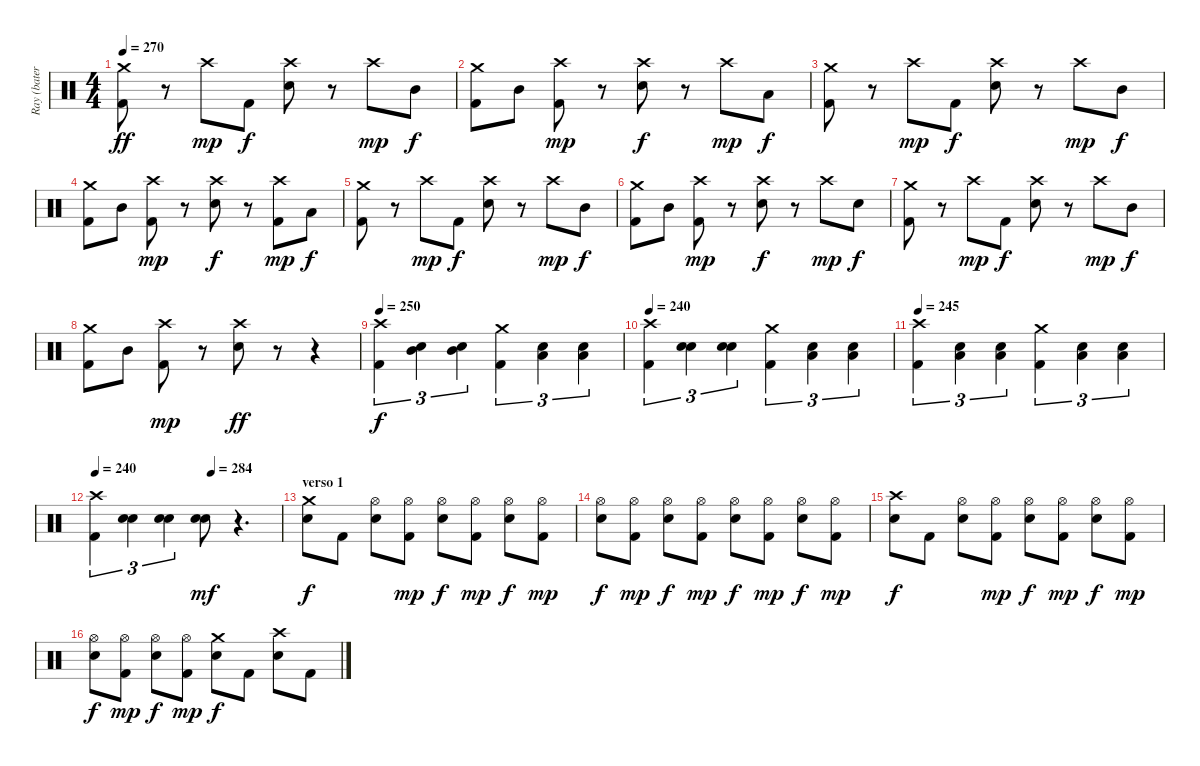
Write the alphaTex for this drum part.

\track ("Ray (batería)" "Ray (bater") {instrument percussion}
\staff {score}
\articulation defaults
\ts (4 4)
\tempo 270
\clef neutral
\ks c
("Crash medium (hit)" "Kick (hit) 2").8{dy ff} r.8 "Crash high (hit)".8{dy mp} "Kick (hit) 2".8{dy f} ("Crash high (hit)" "Snare (hit) 2").8 r.8 "Crash high (hit)".8{dy mp} "Mid Tom (hit)".8{dy f} |
("Crash medium (hit)" "Kick (hit) 2").8 "Mid Tom (hit)".8 ("Crash high (hit)" "Kick (hit) 2").8{dy mp} r.8 ("Crash high (hit)" "Snare (hit) 2").8{dy f} r.8 "Crash high (hit)".8{dy mp} "Low Tom (hit)".8{dy f} |
("Crash medium (hit)" "Kick (hit) 2").8 r.8 "Crash high (hit)".8{dy mp} "Kick (hit) 2".8{dy f} ("Crash high (hit)" "Snare (hit) 2").8 r.8 "Crash high (hit)".8{dy mp} "Mid Tom (hit)".8{dy f} |
("Crash medium (hit)" "Kick (hit) 2").8 "Mid Tom (hit)".8 ("Crash high (hit)" "Kick (hit) 2").8{dy mp} r.8 ("Crash high (hit)" "Snare (hit) 2").8{dy f} r.8 ("Crash high (hit)" "Kick (hit) 2").8{dy mp} "Low Tom (hit)".8{dy f} |
("Crash medium (hit)" "Kick (hit) 2").8 r.8 "Crash high (hit)".8{dy mp} "Kick (hit) 2".8{dy f} ("Crash high (hit)" "Snare (hit) 2").8 r.8 "Crash high (hit)".8{dy mp} "Mid Tom (hit)".8{dy f} |
("Crash medium (hit)" "Kick (hit) 2").8 "Mid Tom (hit)".8 ("Crash high (hit)" "Kick (hit) 2").8{dy mp} r.8 ("Crash high (hit)" "Snare (hit) 2").8{dy f} r.8 "Crash high (hit)".8{dy mp} "Snare (hit) 2".8{dy f} |
("Crash medium (hit)" "Kick (hit) 2").8 r.8 "Crash high (hit)".8{dy mp} "Kick (hit) 2".8{dy f} ("Crash high (hit)" "Snare (hit) 2").8 r.8 "Crash high (hit)".8{dy mp} "Mid Tom (hit)".8{dy f} |
("Crash medium (hit)" "Kick (hit) 2").8 "Mid Tom (hit)".8 ("Crash high (hit)" "Kick (hit) 2").8{dy mp} r.8 ("Crash high (hit)" "Snare (hit) 2").8{dy ff} r.8 r.4 |
\section ("" "")
\tempo 250
("Crash high (hit)" "Kick (hit) 2").4{tu (3 2) dy f} ("Mid Tom (hit)" "Snare (hit) 2").4{tu (3 2)} ("Mid Tom (hit)" "Snare (hit) 2").4{tu (3 2)} ("Crash medium (hit)" "Kick (hit) 2").4{tu (3 2)} ("Snare (hit) 2" "Low Tom (hit)").4{tu (3 2)} ("Snare (hit) 2" "Low Tom (hit)").4{tu (3 2)} |
\tempo 240
("Crash high (hit)" "Kick (hit) 2").4{tu (3 2)} ("Snare (hit) 2" "Electric Snare (hit)").4{tu (3 2)} ("Snare (hit) 2" "Electric Snare (hit)").4{tu (3 2)} ("Crash medium (hit)" "Kick (hit) 2").4{tu (3 2)} ("Snare (hit) 2" "Low Tom (hit)").4{tu (3 2)} ("Snare (hit) 2" "Low Tom (hit)").4{tu (3 2)} |
\tempo 245
("Crash high (hit)" "Kick (hit) 2").4{tu (3 2)} ("Snare (hit) 2" "Low Floor Tom (hit)").4{tu (3 2)} ("Snare (hit) 2" "Low Floor Tom (hit)").4{tu (3 2)} ("Crash medium (hit)" "Kick (hit) 2").4{tu (3 2)} ("Snare (hit) 2" "Low Tom (hit)").4{tu (3 2)} ("Snare (hit) 2" "Low Tom (hit)").4{tu (3 2)} |
\tempo 240
\tempo (284 0.625)
("Crash high (hit)" "Kick (hit) 2").4{tu (3 2)} ("Snare (hit) 2" "Electric Snare (hit)").4{tu (3 2)} ("Snare (hit) 2" "Electric Snare (hit)").4{tu (3 2)} ("Snare (hit) 2" "Electric Snare (hit)").8{dy mf} r.4{d} |
\section ("" "verso 1")
("Crash medium (hit)" "Snare (hit) 2").8{dy f} "Kick (hit) 2".8 ("Hi-Hat (open)" "Snare (hit) 2").8 ("Hi-Hat (open)" "Kick (hit) 2").8{dy mp} ("Hi-Hat (open)" "Snare (hit) 2").8{dy f} ("Hi-Hat (open)" "Kick (hit) 2").8{dy mp} ("Hi-Hat (open)" "Snare (hit) 2").8{dy f} ("Hi-Hat (open)" "Kick (hit) 2").8{dy mp} |
("Hi-Hat (open)" "Snare (hit) 2").8{dy f} ("Hi-Hat (open)" "Kick (hit) 2").8{dy mp} ("Hi-Hat (open)" "Snare (hit) 2").8{dy f} ("Hi-Hat (open)" "Kick (hit) 2").8{dy mp} ("Hi-Hat (open)" "Snare (hit) 2").8{dy f} ("Hi-Hat (open)" "Kick (hit) 2").8{dy mp} ("Hi-Hat (open)" "Snare (hit) 2").8{dy f} ("Hi-Hat (open)" "Kick (hit) 2").8{dy mp} |
("Crash high (hit)" "Snare (hit) 2").8{dy f} "Kick (hit) 2".8 ("Hi-Hat (open)" "Snare (hit) 2").8 ("Hi-Hat (open)" "Kick (hit) 2").8{dy mp} ("Hi-Hat (open)" "Snare (hit) 2").8{dy f} ("Hi-Hat (open)" "Kick (hit) 2").8{dy mp} ("Hi-Hat (open)" "Snare (hit) 2").8{dy f} ("Hi-Hat (open)" "Kick (hit) 2").8{dy mp} |
("Hi-Hat (open)" "Snare (hit) 2").8{dy f} ("Hi-Hat (open)" "Kick (hit) 2").8{dy mp} ("Hi-Hat (open)" "Snare (hit) 2").8{dy f} ("Hi-Hat (open)" "Kick (hit) 2").8{dy mp} ("Crash medium (hit)" "Snare (hit) 2").8{dy f} "Kick (hit) 2".8 ("Crash high (hit)" "Snare (hit) 2").8 "Kick (hit) 2".8
